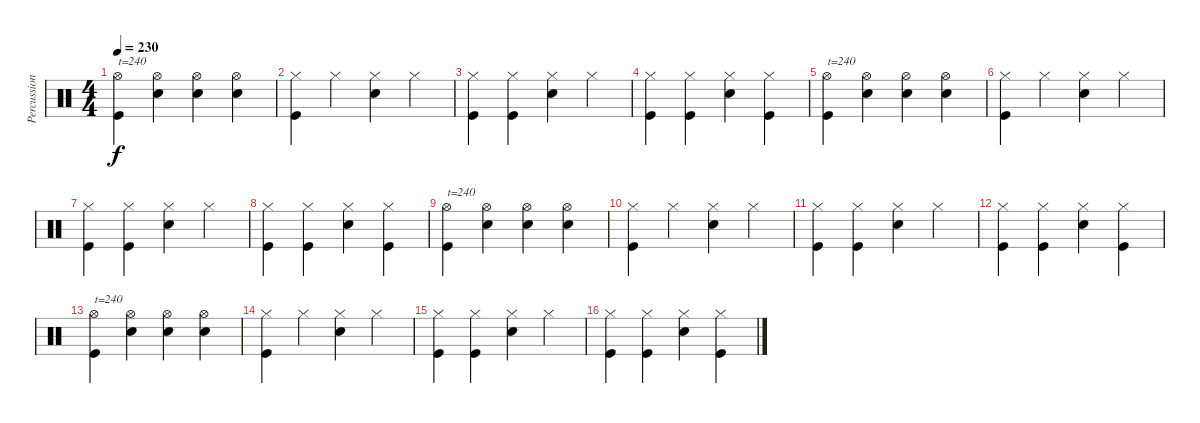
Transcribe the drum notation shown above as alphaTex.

\track ("Percussions" "Percussion") {instrument percussion}
\staff {score}
\articulation defaults
\ts (4 4)
\tempo 230
\clef neutral
\ks c
("Hi-Hat (open)" "Kick (hit)").4{txt "t=240" dy f} ("Hi-Hat (open)" "Electric Snare (hit)").4 ("Hi-Hat (open)" "Electric Snare (hit)").4 ("Hi-Hat (open)" "Electric Snare (hit)").4 |
("Hi-Hat (closed)" "Kick (hit)").4 "Hi-Hat (closed)".4 ("Hi-Hat (closed)" "Electric Snare (hit)").4 "Hi-Hat (closed)".4 |
("Hi-Hat (closed)" "Kick (hit)").4 ("Hi-Hat (closed)" "Kick (hit)").4 ("Hi-Hat (closed)" "Electric Snare (hit)").4 "Hi-Hat (closed)".4 |
("Hi-Hat (closed)" "Kick (hit)").4 ("Hi-Hat (closed)" "Kick (hit)").4 ("Hi-Hat (closed)" "Electric Snare (hit)").4 ("Hi-Hat (closed)" "Kick (hit)").4 |
("Hi-Hat (open)" "Kick (hit)").4{txt "t=240"} ("Hi-Hat (open)" "Electric Snare (hit)").4 ("Hi-Hat (open)" "Electric Snare (hit)").4 ("Hi-Hat (open)" "Electric Snare (hit)").4 |
("Hi-Hat (closed)" "Kick (hit)").4 "Hi-Hat (closed)".4 ("Hi-Hat (closed)" "Electric Snare (hit)").4 "Hi-Hat (closed)".4 |
("Hi-Hat (closed)" "Kick (hit)").4 ("Hi-Hat (closed)" "Kick (hit)").4 ("Hi-Hat (closed)" "Electric Snare (hit)").4 "Hi-Hat (closed)".4 |
("Hi-Hat (closed)" "Kick (hit)").4 ("Hi-Hat (closed)" "Kick (hit)").4 ("Hi-Hat (closed)" "Electric Snare (hit)").4 ("Hi-Hat (closed)" "Kick (hit)").4 |
("Hi-Hat (open)" "Kick (hit)").4{txt "t=240"} ("Hi-Hat (open)" "Electric Snare (hit)").4 ("Hi-Hat (open)" "Electric Snare (hit)").4 ("Hi-Hat (open)" "Electric Snare (hit)").4 |
("Hi-Hat (closed)" "Kick (hit)").4 "Hi-Hat (closed)".4 ("Hi-Hat (closed)" "Electric Snare (hit)").4 "Hi-Hat (closed)".4 |
("Hi-Hat (closed)" "Kick (hit)").4 ("Hi-Hat (closed)" "Kick (hit)").4 ("Hi-Hat (closed)" "Electric Snare (hit)").4 "Hi-Hat (closed)".4 |
("Hi-Hat (closed)" "Kick (hit)").4 ("Hi-Hat (closed)" "Kick (hit)").4 ("Hi-Hat (closed)" "Electric Snare (hit)").4 ("Hi-Hat (closed)" "Kick (hit)").4 |
("Hi-Hat (open)" "Kick (hit)").4{txt "t=240"} ("Hi-Hat (open)" "Electric Snare (hit)").4 ("Hi-Hat (open)" "Electric Snare (hit)").4 ("Hi-Hat (open)" "Electric Snare (hit)").4 |
("Hi-Hat (closed)" "Kick (hit)").4 "Hi-Hat (closed)".4 ("Hi-Hat (closed)" "Electric Snare (hit)").4 "Hi-Hat (closed)".4 |
("Hi-Hat (closed)" "Kick (hit)").4 ("Hi-Hat (closed)" "Kick (hit)").4 ("Hi-Hat (closed)" "Electric Snare (hit)").4 "Hi-Hat (closed)".4 |
("Hi-Hat (closed)" "Kick (hit)").4 ("Hi-Hat (closed)" "Kick (hit)").4 ("Hi-Hat (closed)" "Electric Snare (hit)").4 ("Hi-Hat (closed)" "Kick (hit)").4
